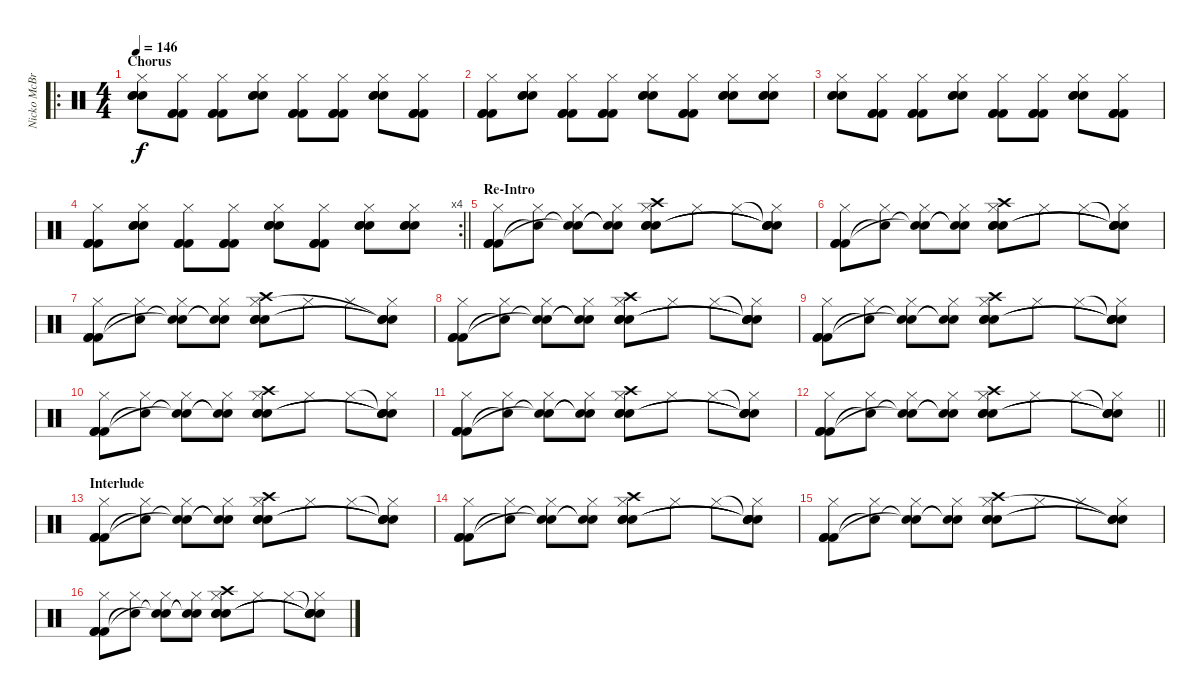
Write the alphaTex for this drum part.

\track ("Nicko McBrain" "Nicko McBr") {instrument percussion}
\staff {score}
\articulation defaults
\ro
\ts (4 4)
\section ("" "Chorus")
\tempo 146
\clef neutral
\ks c
("Hi-Hat (closed)" "Snare (hit) 2" "Snare (hit) 2" "Snare (hit) 2").8{dy f} ("Hi-Hat (closed)" "Kick (hit) 2" "Kick (hit) 2" "Kick (hit) 2").8 ("Hi-Hat (closed)" "Kick (hit) 2" "Kick (hit) 2" "Kick (hit) 2").8 ("Hi-Hat (closed)" "Snare (hit) 2" "Snare (hit) 2" "Snare (hit) 2").8 ("Hi-Hat (closed)" "Kick (hit) 2" "Kick (hit) 2" "Kick (hit) 2").8 ("Hi-Hat (closed)" "Kick (hit) 2" "Kick (hit) 2" "Kick (hit) 2").8 ("Hi-Hat (closed)" "Snare (hit) 2" "Snare (hit) 2" "Snare (hit) 2").8 ("Hi-Hat (closed)" "Kick (hit) 2" "Kick (hit) 2" "Kick (hit) 2").8 |
("Hi-Hat (closed)" "Kick (hit) 2" "Kick (hit) 2" "Kick (hit) 2").8 ("Hi-Hat (closed)" "Snare (hit) 2" "Snare (hit) 2" "Snare (hit) 2").8 ("Hi-Hat (closed)" "Kick (hit) 2" "Kick (hit) 2" "Kick (hit) 2").8 ("Hi-Hat (closed)" "Kick (hit) 2" "Kick (hit) 2" "Kick (hit) 2").8 ("Hi-Hat (closed)" "Snare (hit) 2" "Snare (hit) 2" "Snare (hit) 2").8 ("Hi-Hat (closed)" "Kick (hit) 2" "Kick (hit) 2" "Kick (hit) 2").8 ("Hi-Hat (closed)" "Snare (hit) 2" "Snare (hit) 2" "Snare (hit) 2").8 ("Hi-Hat (closed)" "Snare (hit) 2" "Snare (hit) 2" "Snare (hit) 2").8 |
("Hi-Hat (closed)" "Snare (hit) 2" "Snare (hit) 2" "Snare (hit) 2").8 ("Hi-Hat (closed)" "Kick (hit) 2" "Kick (hit) 2" "Kick (hit) 2").8 ("Hi-Hat (closed)" "Kick (hit) 2" "Kick (hit) 2" "Kick (hit) 2").8 ("Hi-Hat (closed)" "Snare (hit) 2" "Snare (hit) 2" "Snare (hit) 2").8 ("Hi-Hat (closed)" "Kick (hit) 2" "Kick (hit) 2" "Kick (hit) 2").8 ("Hi-Hat (closed)" "Kick (hit) 2" "Kick (hit) 2" "Kick (hit) 2").8 ("Hi-Hat (closed)" "Snare (hit) 2" "Snare (hit) 2" "Snare (hit) 2").8 ("Hi-Hat (closed)" "Kick (hit) 2" "Kick (hit) 2" "Kick (hit) 2").8 |
\rc 4
\barLineRight lightlight
("Hi-Hat (closed)" "Kick (hit) 2" "Kick (hit) 2" "Kick (hit) 2").8 ("Hi-Hat (closed)" "Snare (hit) 2" "Snare (hit) 2" "Snare (hit) 2").8 ("Hi-Hat (closed)" "Kick (hit) 2" "Kick (hit) 2" "Kick (hit) 2").8 ("Hi-Hat (closed)" "Kick (hit) 2" "Kick (hit) 2" "Kick (hit) 2").8 ("Hi-Hat (closed)" "Snare (hit) 2" "Snare (hit) 2" "Snare (hit) 2").8 ("Hi-Hat (closed)" "Kick (hit) 2" "Kick (hit) 2" "Kick (hit) 2").8 ("Hi-Hat (closed)" "Snare (hit) 2" "Snare (hit) 2" "Snare (hit) 2").8 ("Hi-Hat (closed)" "Snare (hit) 2" "Snare (hit) 2" "Snare (hit) 2").8 |
\section ("" "Re-Intro")
("Hi-Hat (closed)" "Kick (hit) 2" "Kick (hit) 2" "Kick (hit) 2").8 ("Hi-Hat (closed)" "Snare (hit)"{t}).8 ("Hi-Hat (closed)" "Snare (hit)"{t} "Snare (hit)"{t}).8 ("Hi-Hat (closed)" "Snare (hit)"{t} "Snare (hit)"{t}).8 ("Crash high (hit)" "Hi-Hat (closed)" "Snare (hit) 2" "Snare (hit) 2" "Snare (hit) 2").8 "Hi-Hat (closed)".8 "Hi-Hat (closed)".8 ("Snare (hit)"{t} "Hi-Hat (closed)" "Snare (hit)"{t} "Snare (hit)"{t} "Snare (hit)"{t}).8 |
("Hi-Hat (closed)" "Kick (hit) 2" "Kick (hit) 2" "Kick (hit) 2").8 ("Hi-Hat (closed)" "Snare (hit)"{t}).8 ("Hi-Hat (closed)" "Snare (hit)"{t} "Snare (hit)"{t}).8 ("Hi-Hat (closed)" "Snare (hit)"{t} "Snare (hit)"{t}).8 ("Crash high (hit)" "Hi-Hat (closed)" "Snare (hit) 2" "Snare (hit) 2" "Snare (hit) 2").8 "Hi-Hat (closed)".8 "Hi-Hat (closed)".8 ("Snare (hit)"{t} "Hi-Hat (closed)" "Snare (hit)"{t} "Snare (hit)"{t} "Snare (hit)"{t}).8 |
("Hi-Hat (closed)" "Kick (hit) 2" "Kick (hit) 2" "Kick (hit) 2").8 ("Hi-Hat (closed)" "Snare (hit)"{t}).8 ("Hi-Hat (closed)" "Snare (hit)"{t} "Snare (hit)"{t}).8 ("Hi-Hat (closed)" "Snare (hit)"{t} "Snare (hit)"{t}).8 ("Crash high (hit)" "Hi-Hat (closed)" "Snare (hit) 2" "Snare (hit) 2" "Snare (hit) 2").8 "Hi-Hat (closed)".8 "Hi-Hat (closed)".8 ("Hi-Hat (closed)" "Snare (hit)"{t} "Snare (hit)"{t} "Snare (hit)"{t}).8 |
("Hi-Hat (closed)" "Kick (hit) 2" "Kick (hit) 2" "Kick (hit) 2").8 ("Hi-Hat (closed)" "Snare (hit)"{t}).8 ("Hi-Hat (closed)" "Snare (hit)"{t} "Snare (hit)"{t}).8 ("Hi-Hat (closed)" "Snare (hit)"{t} "Snare (hit)"{t}).8 ("Crash high (hit)" "Hi-Hat (closed)" "Snare (hit) 2" "Snare (hit) 2" "Snare (hit) 2").8 "Hi-Hat (closed)".8 "Hi-Hat (closed)".8 ("Snare (hit)"{t} "Hi-Hat (closed)" "Snare (hit)"{t} "Snare (hit)"{t} "Snare (hit)"{t}).8 |
("Hi-Hat (closed)" "Kick (hit) 2" "Kick (hit) 2" "Kick (hit) 2").8 ("Hi-Hat (closed)" "Snare (hit)"{t}).8 ("Hi-Hat (closed)" "Snare (hit)"{t} "Snare (hit)"{t}).8 ("Hi-Hat (closed)" "Snare (hit)"{t} "Snare (hit)"{t}).8 ("Crash high (hit)" "Hi-Hat (closed)" "Snare (hit) 2" "Snare (hit) 2" "Snare (hit) 2").8 "Hi-Hat (closed)".8 "Hi-Hat (closed)".8 ("Snare (hit)"{t} "Hi-Hat (closed)" "Snare (hit)"{t} "Snare (hit)"{t} "Snare (hit)"{t}).8 |
("Hi-Hat (closed)" "Kick (hit) 2" "Kick (hit) 2" "Kick (hit) 2").8 ("Hi-Hat (closed)" "Snare (hit)"{t}).8 ("Hi-Hat (closed)" "Snare (hit)"{t} "Snare (hit)"{t}).8 ("Hi-Hat (closed)" "Snare (hit)"{t} "Snare (hit)"{t}).8 ("Crash high (hit)" "Hi-Hat (closed)" "Snare (hit) 2" "Snare (hit) 2" "Snare (hit) 2").8 "Hi-Hat (closed)".8 "Hi-Hat (closed)".8 ("Snare (hit)"{t} "Hi-Hat (closed)" "Snare (hit)"{t} "Snare (hit)"{t} "Snare (hit)"{t}).8 |
("Hi-Hat (closed)" "Kick (hit) 2" "Kick (hit) 2" "Kick (hit) 2").8 ("Hi-Hat (closed)" "Snare (hit)"{t}).8 ("Hi-Hat (closed)" "Snare (hit)"{t} "Snare (hit)"{t}).8 ("Hi-Hat (closed)" "Snare (hit)"{t} "Snare (hit)"{t}).8 ("Crash high (hit)" "Hi-Hat (closed)" "Snare (hit) 2" "Snare (hit) 2" "Snare (hit) 2").8 "Hi-Hat (closed)".8 "Hi-Hat (closed)".8 ("Snare (hit)"{t} "Hi-Hat (closed)" "Snare (hit)"{t} "Snare (hit)"{t} "Snare (hit)"{t}).8 |
\barLineRight lightlight
("Hi-Hat (closed)" "Kick (hit) 2" "Kick (hit) 2" "Kick (hit) 2").8 ("Hi-Hat (closed)" "Snare (hit)"{t}).8 ("Hi-Hat (closed)" "Snare (hit)"{t} "Snare (hit)"{t}).8 ("Hi-Hat (closed)" "Snare (hit)"{t} "Snare (hit)"{t}).8 ("Crash high (hit)" "Hi-Hat (closed)" "Snare (hit) 2" "Snare (hit) 2" "Snare (hit) 2").8 "Hi-Hat (closed)".8 "Hi-Hat (closed)".8 ("Snare (hit)"{t} "Hi-Hat (closed)" "Snare (hit)"{t} "Snare (hit)"{t} "Snare (hit)"{t}).8 |
\section ("" "Interlude")
("Hi-Hat (closed)" "Kick (hit) 2" "Kick (hit) 2" "Kick (hit) 2").8 ("Hi-Hat (closed)" "Snare (hit)"{t}).8 ("Hi-Hat (closed)" "Snare (hit)"{t} "Snare (hit)"{t}).8 ("Hi-Hat (closed)" "Snare (hit)"{t} "Snare (hit)"{t}).8 ("Crash high (hit)" "Hi-Hat (closed)" "Snare (hit) 2" "Snare (hit) 2" "Snare (hit) 2").8 "Hi-Hat (closed)".8 "Hi-Hat (closed)".8 ("Snare (hit)"{t} "Hi-Hat (closed)" "Snare (hit)"{t} "Snare (hit)"{t} "Snare (hit)"{t}).8 |
("Hi-Hat (closed)" "Kick (hit) 2" "Kick (hit) 2" "Kick (hit) 2").8 ("Hi-Hat (closed)" "Snare (hit)"{t}).8 ("Hi-Hat (closed)" "Snare (hit)"{t} "Snare (hit)"{t}).8 ("Hi-Hat (closed)" "Snare (hit)"{t} "Snare (hit)"{t}).8 ("Crash high (hit)" "Hi-Hat (closed)" "Snare (hit) 2" "Snare (hit) 2" "Snare (hit) 2").8 "Hi-Hat (closed)".8 "Hi-Hat (closed)".8 ("Snare (hit)"{t} "Hi-Hat (closed)" "Snare (hit)"{t} "Snare (hit)"{t} "Snare (hit)"{t}).8 |
("Hi-Hat (closed)" "Kick (hit) 2" "Kick (hit) 2" "Kick (hit) 2").8 ("Hi-Hat (closed)" "Snare (hit)"{t}).8 ("Hi-Hat (closed)" "Snare (hit)"{t} "Snare (hit)"{t}).8 ("Hi-Hat (closed)" "Snare (hit)"{t} "Snare (hit)"{t}).8 ("Crash high (hit)" "Hi-Hat (closed)" "Snare (hit) 2" "Snare (hit) 2" "Snare (hit) 2").8 "Hi-Hat (closed)".8 "Hi-Hat (closed)".8 ("Hi-Hat (closed)" "Snare (hit)"{t} "Snare (hit)"{t} "Snare (hit)"{t}).8 |
("Hi-Hat (closed)" "Kick (hit) 2" "Kick (hit) 2" "Kick (hit) 2").8 ("Hi-Hat (closed)" "Snare (hit)"{t}).8 ("Hi-Hat (closed)" "Snare (hit)"{t} "Snare (hit)"{t}).8 ("Hi-Hat (closed)" "Snare (hit)"{t} "Snare (hit)"{t}).8 ("Crash high (hit)" "Hi-Hat (closed)" "Snare (hit) 2" "Snare (hit) 2" "Snare (hit) 2").8 "Hi-Hat (closed)".8 "Hi-Hat (closed)".8 ("Snare (hit)"{t} "Hi-Hat (closed)" "Snare (hit)"{t} "Snare (hit)"{t} "Snare (hit)"{t}).8
